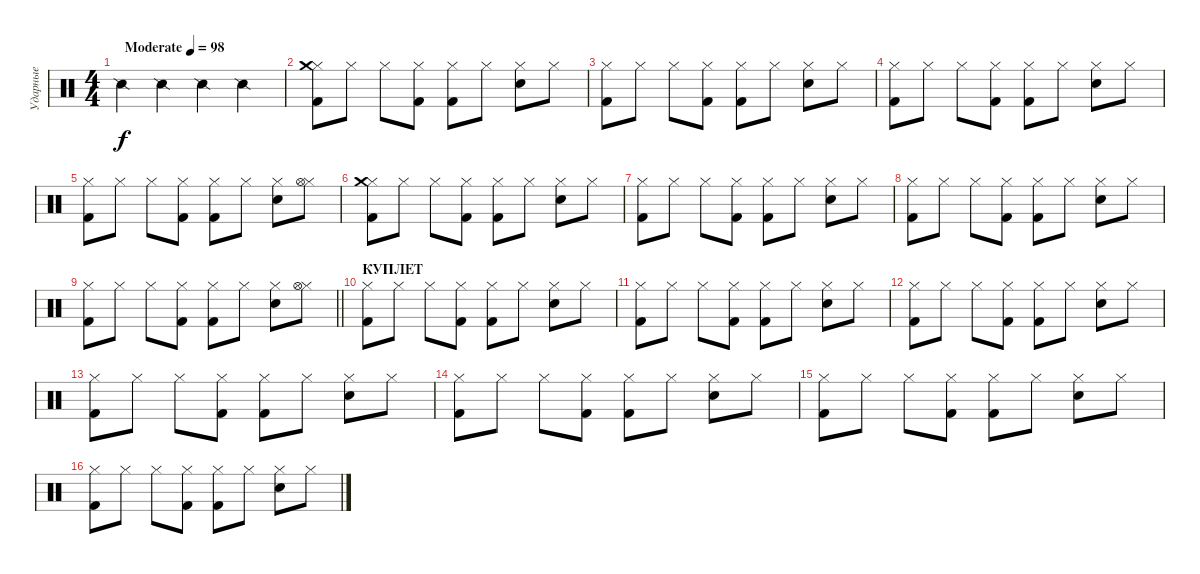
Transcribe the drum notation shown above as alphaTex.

\track ("Ударные" "Ударные") {instrument percussion}
\staff {score}
\articulation defaults
\ts (4 4)
\tempo (98 "Moderate")
\clef neutral
\ks c "Snare (side stick) 2".4{dy f} "Snare (side stick) 2".4 "Snare (side stick) 2".4 "Snare (side stick) 2".4
|
("Hi-Hat (closed)" "Kick (hit) 2" "Crash medium (hit)").8 "Hi-Hat (closed)".8 "Hi-Hat (closed)".8 ("Hi-Hat (closed)" "Kick (hit) 2").8 ("Hi-Hat (closed)" "Kick (hit) 2").8 "Hi-Hat (closed)".8 ("Hi-Hat (closed)" "Snare (hit) 2").8 "Hi-Hat (closed)".8 |
("Hi-Hat (closed)" "Kick (hit) 2").8 "Hi-Hat (closed)".8 "Hi-Hat (closed)".8 ("Hi-Hat (closed)" "Kick (hit) 2").8 ("Hi-Hat (closed)" "Kick (hit) 2").8 "Hi-Hat (closed)".8 ("Hi-Hat (closed)" "Snare (hit) 2").8 "Hi-Hat (closed)".8 |
("Hi-Hat (closed)" "Kick (hit) 2").8 "Hi-Hat (closed)".8 "Hi-Hat (closed)".8 ("Hi-Hat (closed)" "Kick (hit) 2").8 ("Hi-Hat (closed)" "Kick (hit) 2").8 "Hi-Hat (closed)".8 ("Hi-Hat (closed)" "Snare (hit) 2").8 "Hi-Hat (closed)".8 |
("Hi-Hat (closed)" "Kick (hit) 2").8 "Hi-Hat (closed)".8 "Hi-Hat (closed)".8 ("Hi-Hat (closed)" "Kick (hit) 2").8 ("Hi-Hat (closed)" "Kick (hit) 2").8 "Hi-Hat (closed)".8 ("Hi-Hat (closed)" "Snare (hit) 2").8 ("Hi-Hat (closed)" "Hi-Hat (open)").8 |
("Hi-Hat (closed)" "Kick (hit) 2" "Crash medium (hit)").8 "Hi-Hat (closed)".8 "Hi-Hat (closed)".8 ("Hi-Hat (closed)" "Kick (hit) 2").8 ("Hi-Hat (closed)" "Kick (hit) 2").8 "Hi-Hat (closed)".8 ("Hi-Hat (closed)" "Snare (hit) 2").8 "Hi-Hat (closed)".8 |
("Hi-Hat (closed)" "Kick (hit) 2").8 "Hi-Hat (closed)".8 "Hi-Hat (closed)".8 ("Hi-Hat (closed)" "Kick (hit) 2").8 ("Hi-Hat (closed)" "Kick (hit) 2").8 "Hi-Hat (closed)".8 ("Hi-Hat (closed)" "Snare (hit) 2").8 "Hi-Hat (closed)".8 |
("Hi-Hat (closed)" "Kick (hit) 2").8 "Hi-Hat (closed)".8 "Hi-Hat (closed)".8 ("Hi-Hat (closed)" "Kick (hit) 2").8 ("Hi-Hat (closed)" "Kick (hit) 2").8 "Hi-Hat (closed)".8 ("Hi-Hat (closed)" "Snare (hit) 2").8 "Hi-Hat (closed)".8 |
\barLineRight lightlight
("Hi-Hat (closed)" "Kick (hit) 2").8 "Hi-Hat (closed)".8 "Hi-Hat (closed)".8 ("Hi-Hat (closed)" "Kick (hit) 2").8 ("Hi-Hat (closed)" "Kick (hit) 2").8 "Hi-Hat (closed)".8 ("Hi-Hat (closed)" "Snare (hit) 2").8 ("Hi-Hat (closed)" "Hi-Hat (open)").8 |
\section ("" "КУПЛЕТ")
("Hi-Hat (closed)" "Kick (hit) 2").8 "Hi-Hat (closed)".8 "Hi-Hat (closed)".8 ("Hi-Hat (closed)" "Kick (hit) 2").8 ("Hi-Hat (closed)" "Kick (hit) 2").8 "Hi-Hat (closed)".8 ("Hi-Hat (closed)" "Snare (hit) 2").8 "Hi-Hat (closed)".8 |
("Hi-Hat (closed)" "Kick (hit) 2").8 "Hi-Hat (closed)".8 "Hi-Hat (closed)".8 ("Hi-Hat (closed)" "Kick (hit) 2").8 ("Hi-Hat (closed)" "Kick (hit) 2").8 "Hi-Hat (closed)".8 ("Hi-Hat (closed)" "Snare (hit) 2").8 "Hi-Hat (closed)".8 |
("Hi-Hat (closed)" "Kick (hit) 2").8 "Hi-Hat (closed)".8 "Hi-Hat (closed)".8 ("Hi-Hat (closed)" "Kick (hit) 2").8 ("Hi-Hat (closed)" "Kick (hit) 2").8 "Hi-Hat (closed)".8 ("Hi-Hat (closed)" "Snare (hit) 2").8 "Hi-Hat (closed)".8 |
("Hi-Hat (closed)" "Kick (hit) 2").8 "Hi-Hat (closed)".8 "Hi-Hat (closed)".8 ("Hi-Hat (closed)" "Kick (hit) 2").8 ("Hi-Hat (closed)" "Kick (hit) 2").8 "Hi-Hat (closed)".8 ("Hi-Hat (closed)" "Snare (hit) 2").8 "Hi-Hat (closed)".8 |
("Hi-Hat (closed)" "Kick (hit) 2").8 "Hi-Hat (closed)".8 "Hi-Hat (closed)".8 ("Hi-Hat (closed)" "Kick (hit) 2").8 ("Hi-Hat (closed)" "Kick (hit) 2").8 "Hi-Hat (closed)".8 ("Hi-Hat (closed)" "Snare (hit) 2").8 "Hi-Hat (closed)".8 |
("Hi-Hat (closed)" "Kick (hit) 2").8 "Hi-Hat (closed)".8 "Hi-Hat (closed)".8 ("Hi-Hat (closed)" "Kick (hit) 2").8 ("Hi-Hat (closed)" "Kick (hit) 2").8 "Hi-Hat (closed)".8 ("Hi-Hat (closed)" "Snare (hit) 2").8 "Hi-Hat (closed)".8 |
("Hi-Hat (closed)" "Kick (hit) 2").8 "Hi-Hat (closed)".8 "Hi-Hat (closed)".8 ("Hi-Hat (closed)" "Kick (hit) 2").8 ("Hi-Hat (closed)" "Kick (hit) 2").8 "Hi-Hat (closed)".8 ("Hi-Hat (closed)" "Snare (hit) 2").8 "Hi-Hat (closed)".8
